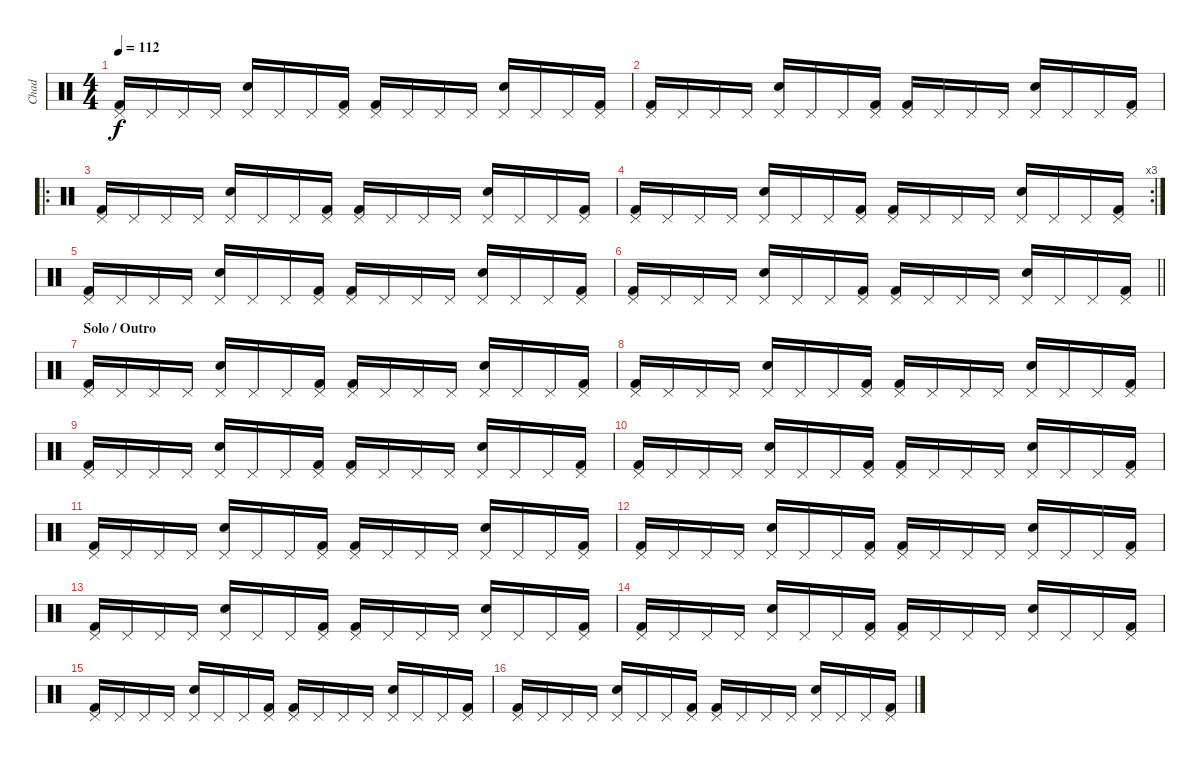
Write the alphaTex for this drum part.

\track ("Chad" "Chad") {instrument percussion}
\staff {score}
\articulation defaults
\ts (4 4)
\tempo 112
\clef neutral
\ks c
("Kick (hit) 2" "Pedal Hi-Hat (hit)").16{dy f} "Pedal Hi-Hat (hit)".16 "Pedal Hi-Hat (hit)".16 "Pedal Hi-Hat (hit)".16 ("Snare (hit) 2" "Pedal Hi-Hat (hit)").16 "Pedal Hi-Hat (hit)".16 "Pedal Hi-Hat (hit)".16 ("Kick (hit) 2" "Pedal Hi-Hat (hit)").16 ("Kick (hit) 2" "Pedal Hi-Hat (hit)").16 "Pedal Hi-Hat (hit)".16 "Pedal Hi-Hat (hit)".16 "Pedal Hi-Hat (hit)".16 ("Snare (hit) 2" "Pedal Hi-Hat (hit)").16 "Pedal Hi-Hat (hit)".16 "Pedal Hi-Hat (hit)".16 ("Kick (hit) 2" "Pedal Hi-Hat (hit)").16 |
("Kick (hit) 2" "Pedal Hi-Hat (hit)").16 "Pedal Hi-Hat (hit)".16 "Pedal Hi-Hat (hit)".16 "Pedal Hi-Hat (hit)".16 ("Snare (hit) 2" "Pedal Hi-Hat (hit)").16 "Pedal Hi-Hat (hit)".16 "Pedal Hi-Hat (hit)".16 ("Kick (hit) 2" "Pedal Hi-Hat (hit)").16 ("Kick (hit) 2" "Pedal Hi-Hat (hit)").16 "Pedal Hi-Hat (hit)".16 "Pedal Hi-Hat (hit)".16 "Pedal Hi-Hat (hit)".16 ("Snare (hit) 2" "Pedal Hi-Hat (hit)").16 "Pedal Hi-Hat (hit)".16 "Pedal Hi-Hat (hit)".16 ("Kick (hit) 2" "Pedal Hi-Hat (hit)").16 |
\ro
("Kick (hit) 2" "Pedal Hi-Hat (hit)").16 "Pedal Hi-Hat (hit)".16 "Pedal Hi-Hat (hit)".16 "Pedal Hi-Hat (hit)".16 ("Snare (hit) 2" "Pedal Hi-Hat (hit)").16 "Pedal Hi-Hat (hit)".16 "Pedal Hi-Hat (hit)".16 ("Kick (hit) 2" "Pedal Hi-Hat (hit)").16 ("Kick (hit) 2" "Pedal Hi-Hat (hit)").16 "Pedal Hi-Hat (hit)".16 "Pedal Hi-Hat (hit)".16 "Pedal Hi-Hat (hit)".16 ("Snare (hit) 2" "Pedal Hi-Hat (hit)").16 "Pedal Hi-Hat (hit)".16 "Pedal Hi-Hat (hit)".16 ("Kick (hit) 2" "Pedal Hi-Hat (hit)").16 |
\rc 3
("Kick (hit) 2" "Pedal Hi-Hat (hit)").16 "Pedal Hi-Hat (hit)".16 "Pedal Hi-Hat (hit)".16 "Pedal Hi-Hat (hit)".16 ("Snare (hit) 2" "Pedal Hi-Hat (hit)").16 "Pedal Hi-Hat (hit)".16 "Pedal Hi-Hat (hit)".16 ("Kick (hit) 2" "Pedal Hi-Hat (hit)").16 ("Kick (hit) 2" "Pedal Hi-Hat (hit)").16 "Pedal Hi-Hat (hit)".16 "Pedal Hi-Hat (hit)".16 "Pedal Hi-Hat (hit)".16 ("Snare (hit) 2" "Pedal Hi-Hat (hit)").16 "Pedal Hi-Hat (hit)".16 "Pedal Hi-Hat (hit)".16 ("Kick (hit) 2" "Pedal Hi-Hat (hit)").16 |
("Kick (hit) 2" "Pedal Hi-Hat (hit)").16 "Pedal Hi-Hat (hit)".16 "Pedal Hi-Hat (hit)".16 "Pedal Hi-Hat (hit)".16 ("Snare (hit) 2" "Pedal Hi-Hat (hit)").16 "Pedal Hi-Hat (hit)".16 "Pedal Hi-Hat (hit)".16 ("Kick (hit) 2" "Pedal Hi-Hat (hit)").16 ("Kick (hit) 2" "Pedal Hi-Hat (hit)").16 "Pedal Hi-Hat (hit)".16 "Pedal Hi-Hat (hit)".16 "Pedal Hi-Hat (hit)".16 ("Snare (hit) 2" "Pedal Hi-Hat (hit)").16 "Pedal Hi-Hat (hit)".16 "Pedal Hi-Hat (hit)".16 ("Kick (hit) 2" "Pedal Hi-Hat (hit)").16 |
\barLineRight lightlight
("Kick (hit) 2" "Pedal Hi-Hat (hit)").16 "Pedal Hi-Hat (hit)".16 "Pedal Hi-Hat (hit)".16 "Pedal Hi-Hat (hit)".16 ("Snare (hit) 2" "Pedal Hi-Hat (hit)").16 "Pedal Hi-Hat (hit)".16 "Pedal Hi-Hat (hit)".16 ("Kick (hit) 2" "Pedal Hi-Hat (hit)").16 ("Kick (hit) 2" "Pedal Hi-Hat (hit)").16 "Pedal Hi-Hat (hit)".16 "Pedal Hi-Hat (hit)".16 "Pedal Hi-Hat (hit)".16 ("Snare (hit) 2" "Pedal Hi-Hat (hit)").16 "Pedal Hi-Hat (hit)".16 "Pedal Hi-Hat (hit)".16 ("Kick (hit) 2" "Pedal Hi-Hat (hit)").16 |
\section ("" "Solo / Outro")
("Kick (hit) 2" "Pedal Hi-Hat (hit)").16 "Pedal Hi-Hat (hit)".16 "Pedal Hi-Hat (hit)".16 "Pedal Hi-Hat (hit)".16 ("Snare (hit) 2" "Pedal Hi-Hat (hit)").16 "Pedal Hi-Hat (hit)".16 "Pedal Hi-Hat (hit)".16 ("Kick (hit) 2" "Pedal Hi-Hat (hit)").16 ("Kick (hit) 2" "Pedal Hi-Hat (hit)").16 "Pedal Hi-Hat (hit)".16 "Pedal Hi-Hat (hit)".16 "Pedal Hi-Hat (hit)".16 ("Snare (hit) 2" "Pedal Hi-Hat (hit)").16 "Pedal Hi-Hat (hit)".16 "Pedal Hi-Hat (hit)".16 ("Kick (hit) 2" "Pedal Hi-Hat (hit)").16 |
("Kick (hit) 2" "Pedal Hi-Hat (hit)").16 "Pedal Hi-Hat (hit)".16 "Pedal Hi-Hat (hit)".16 "Pedal Hi-Hat (hit)".16 ("Snare (hit) 2" "Pedal Hi-Hat (hit)").16 "Pedal Hi-Hat (hit)".16 "Pedal Hi-Hat (hit)".16 ("Kick (hit) 2" "Pedal Hi-Hat (hit)").16 ("Kick (hit) 2" "Pedal Hi-Hat (hit)").16 "Pedal Hi-Hat (hit)".16 "Pedal Hi-Hat (hit)".16 "Pedal Hi-Hat (hit)".16 ("Snare (hit) 2" "Pedal Hi-Hat (hit)").16 "Pedal Hi-Hat (hit)".16 "Pedal Hi-Hat (hit)".16 ("Kick (hit) 2" "Pedal Hi-Hat (hit)").16 |
("Kick (hit) 2" "Pedal Hi-Hat (hit)").16 "Pedal Hi-Hat (hit)".16 "Pedal Hi-Hat (hit)".16 "Pedal Hi-Hat (hit)".16 ("Snare (hit) 2" "Pedal Hi-Hat (hit)").16 "Pedal Hi-Hat (hit)".16 "Pedal Hi-Hat (hit)".16 ("Kick (hit) 2" "Pedal Hi-Hat (hit)").16 ("Kick (hit) 2" "Pedal Hi-Hat (hit)").16 "Pedal Hi-Hat (hit)".16 "Pedal Hi-Hat (hit)".16 "Pedal Hi-Hat (hit)".16 ("Snare (hit) 2" "Pedal Hi-Hat (hit)").16 "Pedal Hi-Hat (hit)".16 "Pedal Hi-Hat (hit)".16 ("Kick (hit) 2" "Pedal Hi-Hat (hit)").16 |
("Kick (hit) 2" "Pedal Hi-Hat (hit)").16 "Pedal Hi-Hat (hit)".16 "Pedal Hi-Hat (hit)".16 "Pedal Hi-Hat (hit)".16 ("Snare (hit) 2" "Pedal Hi-Hat (hit)").16 "Pedal Hi-Hat (hit)".16 "Pedal Hi-Hat (hit)".16 ("Kick (hit) 2" "Pedal Hi-Hat (hit)").16 ("Kick (hit) 2" "Pedal Hi-Hat (hit)").16 "Pedal Hi-Hat (hit)".16 "Pedal Hi-Hat (hit)".16 "Pedal Hi-Hat (hit)".16 ("Snare (hit) 2" "Pedal Hi-Hat (hit)").16 "Pedal Hi-Hat (hit)".16 "Pedal Hi-Hat (hit)".16 ("Kick (hit) 2" "Pedal Hi-Hat (hit)").16 |
("Kick (hit) 2" "Pedal Hi-Hat (hit)").16 "Pedal Hi-Hat (hit)".16 "Pedal Hi-Hat (hit)".16 "Pedal Hi-Hat (hit)".16 ("Snare (hit) 2" "Pedal Hi-Hat (hit)").16 "Pedal Hi-Hat (hit)".16 "Pedal Hi-Hat (hit)".16 ("Kick (hit) 2" "Pedal Hi-Hat (hit)").16 ("Kick (hit) 2" "Pedal Hi-Hat (hit)").16 "Pedal Hi-Hat (hit)".16 "Pedal Hi-Hat (hit)".16 "Pedal Hi-Hat (hit)".16 ("Snare (hit) 2" "Pedal Hi-Hat (hit)").16 "Pedal Hi-Hat (hit)".16 "Pedal Hi-Hat (hit)".16 ("Kick (hit) 2" "Pedal Hi-Hat (hit)").16 |
("Kick (hit) 2" "Pedal Hi-Hat (hit)").16 "Pedal Hi-Hat (hit)".16 "Pedal Hi-Hat (hit)".16 "Pedal Hi-Hat (hit)".16 ("Snare (hit) 2" "Pedal Hi-Hat (hit)").16 "Pedal Hi-Hat (hit)".16 "Pedal Hi-Hat (hit)".16 ("Kick (hit) 2" "Pedal Hi-Hat (hit)").16 ("Kick (hit) 2" "Pedal Hi-Hat (hit)").16 "Pedal Hi-Hat (hit)".16 "Pedal Hi-Hat (hit)".16 "Pedal Hi-Hat (hit)".16 ("Snare (hit) 2" "Pedal Hi-Hat (hit)").16 "Pedal Hi-Hat (hit)".16 "Pedal Hi-Hat (hit)".16 ("Kick (hit) 2" "Pedal Hi-Hat (hit)").16 |
("Kick (hit) 2" "Pedal Hi-Hat (hit)").16 "Pedal Hi-Hat (hit)".16 "Pedal Hi-Hat (hit)".16 "Pedal Hi-Hat (hit)".16 ("Snare (hit) 2" "Pedal Hi-Hat (hit)").16 "Pedal Hi-Hat (hit)".16 "Pedal Hi-Hat (hit)".16 ("Kick (hit) 2" "Pedal Hi-Hat (hit)").16 ("Kick (hit) 2" "Pedal Hi-Hat (hit)").16 "Pedal Hi-Hat (hit)".16 "Pedal Hi-Hat (hit)".16 "Pedal Hi-Hat (hit)".16 ("Snare (hit) 2" "Pedal Hi-Hat (hit)").16 "Pedal Hi-Hat (hit)".16 "Pedal Hi-Hat (hit)".16 ("Kick (hit) 2" "Pedal Hi-Hat (hit)").16 |
("Kick (hit) 2" "Pedal Hi-Hat (hit)").16 "Pedal Hi-Hat (hit)".16 "Pedal Hi-Hat (hit)".16 "Pedal Hi-Hat (hit)".16 ("Snare (hit) 2" "Pedal Hi-Hat (hit)").16 "Pedal Hi-Hat (hit)".16 "Pedal Hi-Hat (hit)".16 ("Kick (hit) 2" "Pedal Hi-Hat (hit)").16 ("Kick (hit) 2" "Pedal Hi-Hat (hit)").16 "Pedal Hi-Hat (hit)".16 "Pedal Hi-Hat (hit)".16 "Pedal Hi-Hat (hit)".16 ("Snare (hit) 2" "Pedal Hi-Hat (hit)").16 "Pedal Hi-Hat (hit)".16 "Pedal Hi-Hat (hit)".16 ("Kick (hit) 2" "Pedal Hi-Hat (hit)").16 |
("Kick (hit) 2" "Pedal Hi-Hat (hit)").16 "Pedal Hi-Hat (hit)".16 "Pedal Hi-Hat (hit)".16 "Pedal Hi-Hat (hit)".16 ("Snare (hit) 2" "Pedal Hi-Hat (hit)").16 "Pedal Hi-Hat (hit)".16 "Pedal Hi-Hat (hit)".16 ("Kick (hit) 2" "Pedal Hi-Hat (hit)").16 ("Kick (hit) 2" "Pedal Hi-Hat (hit)").16 "Pedal Hi-Hat (hit)".16 "Pedal Hi-Hat (hit)".16 "Pedal Hi-Hat (hit)".16 ("Snare (hit) 2" "Pedal Hi-Hat (hit)").16 "Pedal Hi-Hat (hit)".16 "Pedal Hi-Hat (hit)".16 ("Kick (hit) 2" "Pedal Hi-Hat (hit)").16 |
("Kick (hit) 2" "Pedal Hi-Hat (hit)").16 "Pedal Hi-Hat (hit)".16 "Pedal Hi-Hat (hit)".16 "Pedal Hi-Hat (hit)".16 ("Snare (hit) 2" "Pedal Hi-Hat (hit)").16 "Pedal Hi-Hat (hit)".16 "Pedal Hi-Hat (hit)".16 ("Kick (hit) 2" "Pedal Hi-Hat (hit)").16 ("Kick (hit) 2" "Pedal Hi-Hat (hit)").16 "Pedal Hi-Hat (hit)".16 "Pedal Hi-Hat (hit)".16 "Pedal Hi-Hat (hit)".16 ("Snare (hit) 2" "Pedal Hi-Hat (hit)").16 "Pedal Hi-Hat (hit)".16 "Pedal Hi-Hat (hit)".16 ("Kick (hit) 2" "Pedal Hi-Hat (hit)").16
